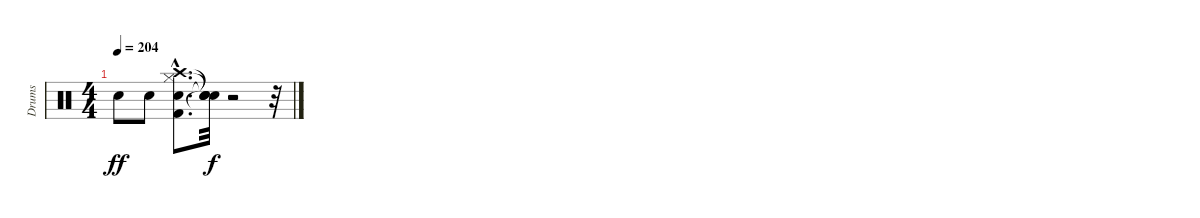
\track ("Drums" "Drums") {instrument percussion}
\staff {score}
\articulation defaults
\ts (4 4)
\tempo 204
\clef neutral
\ks c "Snare (hit) 2".8{dy ff} "Snare (hit) 2".8
("Kick (hit) 2"{hac} "Snare (hit) 2"{hac} "Hi-Hat (closed)"{hac} "Crash high (hit)"{hac}).8{d} ("Snare (hit)"{t} "Snare (hit)"{t} "Snare (hit)"{t} "Snare (hit)"{t}).32{dy f} r.2 r.32
